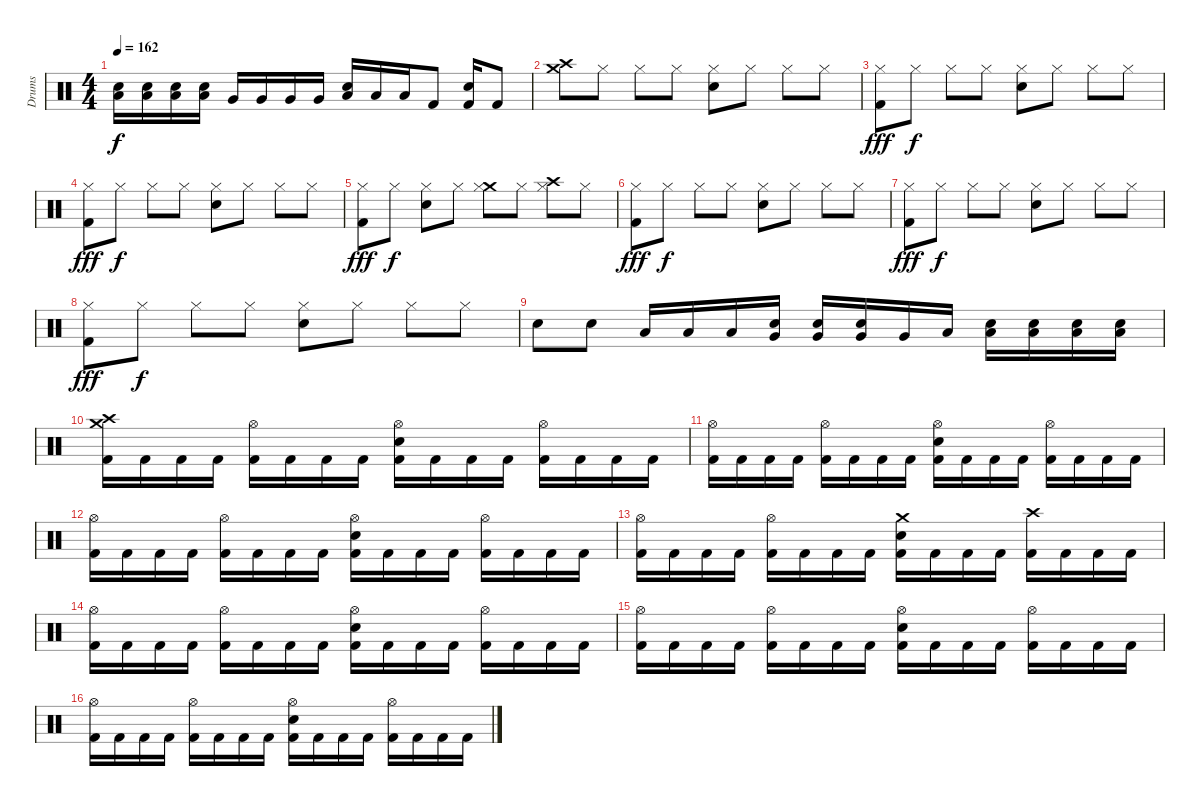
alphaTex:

\track ("Drums" "Drums") {instrument percussion}
\staff {score}
\articulation defaults
\ts (4 4)
\tempo 162
\clef neutral
\ks c
("Electric Snare (hit)" "Low Tom (hit)").16{dy f} ("Electric Snare (hit)" "Low Tom (hit)").16 ("Electric Snare (hit)" "Low Tom (hit)").16 ("Electric Snare (hit)" "Low Tom (hit)").16 "Very Low Tom (hit)".16 "Very Low Tom (hit)".16 "Very Low Tom (hit)".16 "Very Low Tom (hit)".16 ("Electric Snare (hit)" "Low Floor Tom (hit)").16 "Low Floor Tom (hit)".16 "Low Floor Tom (hit)".16 "Kick (hit) 2".8 ("Electric Snare (hit)" "Kick (hit) 2").16 "Kick (hit) 2".8 |
("Crash medium (hit)" "Crash high (hit)").8 "Hi-Hat (closed)".8 "Hi-Hat (closed)".8 "Hi-Hat (closed)".8 ("Electric Snare (hit)" "Hi-Hat (closed)").8 "Hi-Hat (closed)".8 "Hi-Hat (closed)".8 "Hi-Hat (closed)".8 |
("Hi-Hat (closed)" "Kick (hit) 2").8{dy fff} "Hi-Hat (closed)".8{dy f} "Hi-Hat (closed)".8 "Hi-Hat (closed)".8 ("Electric Snare (hit)" "Hi-Hat (closed)").8 "Hi-Hat (closed)".8 "Hi-Hat (closed)".8 "Hi-Hat (closed)".8 |
("Hi-Hat (closed)" "Kick (hit) 2").8{dy fff} "Hi-Hat (closed)".8{dy f} "Hi-Hat (closed)".8 "Hi-Hat (closed)".8 ("Electric Snare (hit)" "Hi-Hat (closed)").8 "Hi-Hat (closed)".8 "Hi-Hat (closed)".8 "Hi-Hat (closed)".8 |
("Hi-Hat (closed)" "Kick (hit) 2").8{dy fff} "Hi-Hat (closed)".8{dy f} ("Electric Snare (hit)" "Hi-Hat (closed)").8 "Hi-Hat (closed)".8 ("Crash medium (hit)" "Hi-Hat (closed)").8 "Hi-Hat (closed)".8 ("Crash high (hit)" "Hi-Hat (closed)").8 "Hi-Hat (closed)".8 |
("Hi-Hat (closed)" "Kick (hit) 2").8{dy fff} "Hi-Hat (closed)".8{dy f} "Hi-Hat (closed)".8 "Hi-Hat (closed)".8 ("Electric Snare (hit)" "Hi-Hat (closed)").8 "Hi-Hat (closed)".8 "Hi-Hat (closed)".8 "Hi-Hat (closed)".8 |
("Hi-Hat (closed)" "Kick (hit) 2").8{dy fff} "Hi-Hat (closed)".8{dy f} "Hi-Hat (closed)".8 "Hi-Hat (closed)".8 ("Electric Snare (hit)" "Hi-Hat (closed)").8 "Hi-Hat (closed)".8 "Hi-Hat (closed)".8 "Hi-Hat (closed)".8 |
("Hi-Hat (closed)" "Kick (hit) 2").8{dy fff} "Hi-Hat (closed)".8{dy f} "Hi-Hat (closed)".8 "Hi-Hat (closed)".8 ("Electric Snare (hit)" "Hi-Hat (closed)").8 "Hi-Hat (closed)".8 "Hi-Hat (closed)".8 "Hi-Hat (closed)".8 |
"Electric Snare (hit)".8 "Electric Snare (hit)".8 "Low Tom (hit)".16 "Low Tom (hit)".16 "Low Tom (hit)".16 ("Electric Snare (hit)" "Very Low Tom (hit)").16 ("Electric Snare (hit)" "Very Low Tom (hit)").16 ("Electric Snare (hit)" "Very Low Tom (hit)").16 "Very Low Tom (hit)".16 "Low Floor Tom (hit)".16 ("Electric Snare (hit)" "Low Floor Tom (hit)").16 ("Electric Snare (hit)" "Low Floor Tom (hit)").16 ("Electric Snare (hit)" "Low Floor Tom (hit)").16 ("Electric Snare (hit)" "Low Floor Tom (hit)").16 |
("Crash medium (hit)" "Crash high (hit)" "Kick (hit) 2").16 "Kick (hit) 2".16 "Kick (hit) 2".16 "Kick (hit) 2".16 ("Hi-Hat (open)" "Kick (hit) 2").16 "Kick (hit) 2".16 "Kick (hit) 2".16 "Kick (hit) 2".16 ("Electric Snare (hit)" "Hi-Hat (open)" "Kick (hit) 2").16 "Kick (hit) 2".16 "Kick (hit) 2".16 "Kick (hit) 2".16 ("Hi-Hat (open)" "Kick (hit) 2").16 "Kick (hit) 2".16 "Kick (hit) 2".16 "Kick (hit) 2".16 |
("Hi-Hat (open)" "Kick (hit) 2").16 "Kick (hit) 2".16 "Kick (hit) 2".16 "Kick (hit) 2".16 ("Hi-Hat (open)" "Kick (hit) 2").16 "Kick (hit) 2".16 "Kick (hit) 2".16 "Kick (hit) 2".16 ("Electric Snare (hit)" "Hi-Hat (open)" "Kick (hit) 2").16 "Kick (hit) 2".16 "Kick (hit) 2".16 "Kick (hit) 2".16 ("Hi-Hat (open)" "Kick (hit) 2").16 "Kick (hit) 2".16 "Kick (hit) 2".16 "Kick (hit) 2".16 |
("Hi-Hat (open)" "Kick (hit) 2").16 "Kick (hit) 2".16 "Kick (hit) 2".16 "Kick (hit) 2".16 ("Hi-Hat (open)" "Kick (hit) 2").16 "Kick (hit) 2".16 "Kick (hit) 2".16 "Kick (hit) 2".16 ("Electric Snare (hit)" "Hi-Hat (open)" "Kick (hit) 2").16 "Kick (hit) 2".16 "Kick (hit) 2".16 "Kick (hit) 2".16 ("Hi-Hat (open)" "Kick (hit) 2").16 "Kick (hit) 2".16 "Kick (hit) 2".16 "Kick (hit) 2".16 |
("Hi-Hat (open)" "Kick (hit) 2").16 "Kick (hit) 2".16 "Kick (hit) 2".16 "Kick (hit) 2".16 ("Hi-Hat (open)" "Kick (hit) 2").16 "Kick (hit) 2".16 "Kick (hit) 2".16 "Kick (hit) 2".16 ("Crash medium (hit)" "Electric Snare (hit)" "Kick (hit) 2").16 "Kick (hit) 2".16 "Kick (hit) 2".16 "Kick (hit) 2".16 ("Crash high (hit)" "Kick (hit) 2").16 "Kick (hit) 2".16 "Kick (hit) 2".16 "Kick (hit) 2".16 |
("Hi-Hat (open)" "Kick (hit) 2").16 "Kick (hit) 2".16 "Kick (hit) 2".16 "Kick (hit) 2".16 ("Hi-Hat (open)" "Kick (hit) 2").16 "Kick (hit) 2".16 "Kick (hit) 2".16 "Kick (hit) 2".16 ("Electric Snare (hit)" "Hi-Hat (open)" "Kick (hit) 2").16 "Kick (hit) 2".16 "Kick (hit) 2".16 "Kick (hit) 2".16 ("Hi-Hat (open)" "Kick (hit) 2").16 "Kick (hit) 2".16 "Kick (hit) 2".16 "Kick (hit) 2".16 |
("Hi-Hat (open)" "Kick (hit) 2").16 "Kick (hit) 2".16 "Kick (hit) 2".16 "Kick (hit) 2".16 ("Hi-Hat (open)" "Kick (hit) 2").16 "Kick (hit) 2".16 "Kick (hit) 2".16 "Kick (hit) 2".16 ("Electric Snare (hit)" "Hi-Hat (open)" "Kick (hit) 2").16 "Kick (hit) 2".16 "Kick (hit) 2".16 "Kick (hit) 2".16 ("Hi-Hat (open)" "Kick (hit) 2").16 "Kick (hit) 2".16 "Kick (hit) 2".16 "Kick (hit) 2".16 |
("Hi-Hat (open)" "Kick (hit) 2").16 "Kick (hit) 2".16 "Kick (hit) 2".16 "Kick (hit) 2".16 ("Hi-Hat (open)" "Kick (hit) 2").16 "Kick (hit) 2".16 "Kick (hit) 2".16 "Kick (hit) 2".16 ("Electric Snare (hit)" "Hi-Hat (open)" "Kick (hit) 2").16 "Kick (hit) 2".16 "Kick (hit) 2".16 "Kick (hit) 2".16 ("Hi-Hat (open)" "Kick (hit) 2").16 "Kick (hit) 2".16 "Kick (hit) 2".16 "Kick (hit) 2".16
